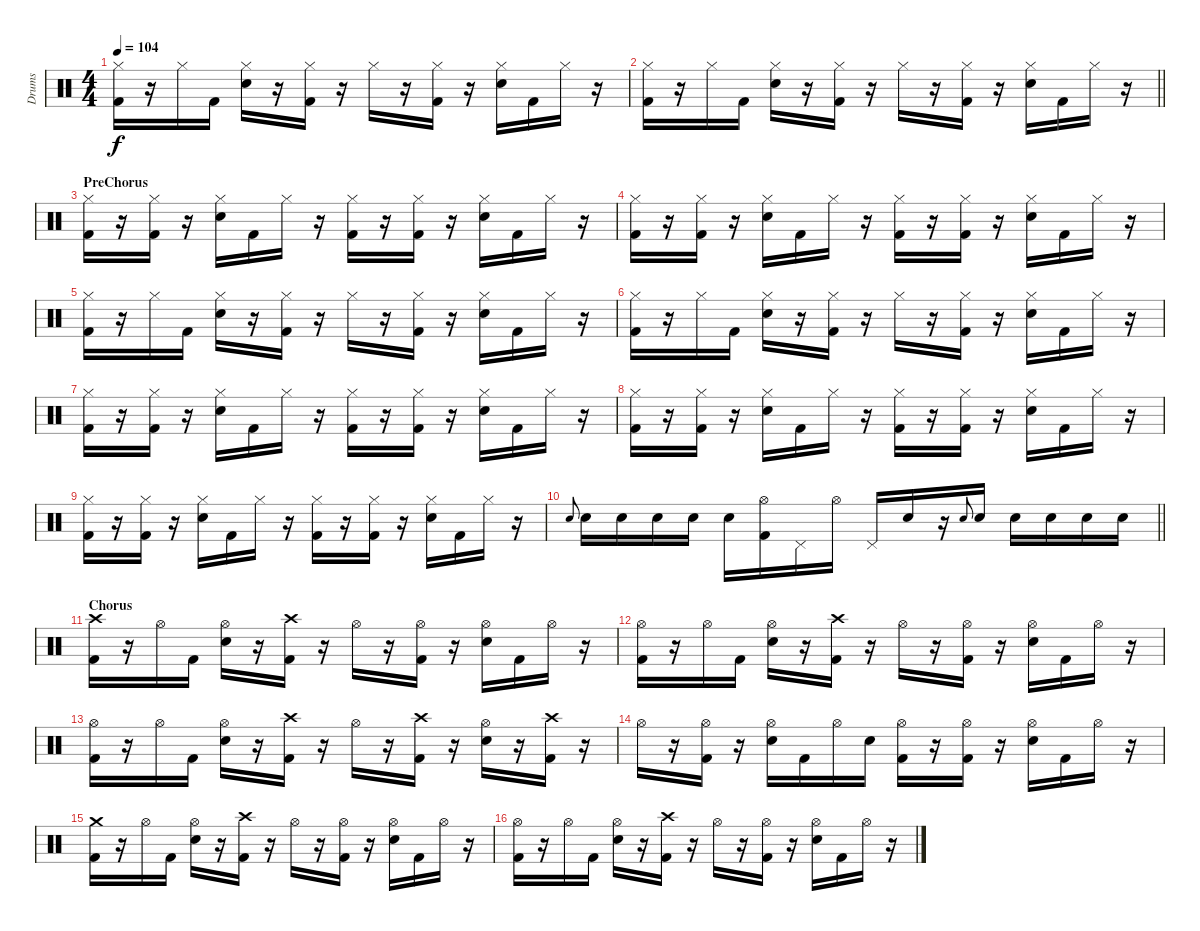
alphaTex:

\track ("Drums" "Drums") {instrument percussion}
\staff {score}
\articulation defaults
\ts (4 4)
\tempo 104
\clef neutral
\ks c
("Hi-Hat (closed)" "Kick (hit) 2").16{dy f} r.16 "Hi-Hat (closed)".16 "Kick (hit) 2".16 ("Hi-Hat (closed)" "Snare (hit) 2").16 r.16 ("Hi-Hat (closed)" "Kick (hit) 2").16 r.16 "Hi-Hat (closed)".16 r.16 ("Hi-Hat (closed)" "Kick (hit) 2").16 r.16 ("Hi-Hat (closed)" "Snare (hit) 2").16 "Kick (hit) 2".16 "Hi-Hat (closed)".16 r.16 |
\barLineRight lightlight
("Hi-Hat (closed)" "Kick (hit) 2").16 r.16 "Hi-Hat (closed)".16 "Kick (hit) 2".16 ("Hi-Hat (closed)" "Snare (hit) 2").16 r.16 ("Hi-Hat (closed)" "Kick (hit) 2").16 r.16 "Hi-Hat (closed)".16 r.16 ("Hi-Hat (closed)" "Kick (hit) 2").16 r.16 ("Hi-Hat (closed)" "Snare (hit) 2").16 "Kick (hit) 2".16 "Hi-Hat (closed)".16 r.16 |
\section ("" "PreChorus")
("Hi-Hat (closed)" "Kick (hit) 2").16 r.16 ("Hi-Hat (closed)" "Kick (hit) 2").16 r.16 ("Hi-Hat (closed)" "Snare (hit) 2").16 "Kick (hit) 2".16 "Hi-Hat (closed)".16 r.16 ("Hi-Hat (closed)" "Kick (hit) 2").16 r.16 ("Hi-Hat (closed)" "Kick (hit) 2").16 r.16 ("Hi-Hat (closed)" "Snare (hit) 2").16 "Kick (hit) 2".16 "Hi-Hat (closed)".16 r.16 |
("Hi-Hat (closed)" "Kick (hit) 2").16 r.16 ("Hi-Hat (closed)" "Kick (hit) 2").16 r.16 ("Hi-Hat (closed)" "Snare (hit) 2").16 "Kick (hit) 2".16 "Hi-Hat (closed)".16 r.16 ("Hi-Hat (closed)" "Kick (hit) 2").16 r.16 ("Hi-Hat (closed)" "Kick (hit) 2").16 r.16 ("Hi-Hat (closed)" "Snare (hit) 2").16 "Kick (hit) 2".16 "Hi-Hat (closed)".16 r.16 |
("Hi-Hat (closed)" "Kick (hit) 2").16 r.16 "Hi-Hat (closed)".16 "Kick (hit) 2".16 ("Hi-Hat (closed)" "Snare (hit) 2").16 r.16 ("Hi-Hat (closed)" "Kick (hit) 2").16 r.16 "Hi-Hat (closed)".16 r.16 ("Hi-Hat (closed)" "Kick (hit) 2").16 r.16 ("Hi-Hat (closed)" "Snare (hit) 2").16 "Kick (hit) 2".16 "Hi-Hat (closed)".16 r.16 |
("Hi-Hat (closed)" "Kick (hit) 2").16 r.16 "Hi-Hat (closed)".16 "Kick (hit) 2".16 ("Hi-Hat (closed)" "Snare (hit) 2").16 r.16 ("Hi-Hat (closed)" "Kick (hit) 2").16 r.16 "Hi-Hat (closed)".16 r.16 ("Hi-Hat (closed)" "Kick (hit) 2").16 r.16 ("Hi-Hat (closed)" "Snare (hit) 2").16 "Kick (hit) 2".16 "Hi-Hat (closed)".16 r.16 |
("Hi-Hat (closed)" "Kick (hit) 2").16 r.16 ("Hi-Hat (closed)" "Kick (hit) 2").16 r.16 ("Hi-Hat (closed)" "Snare (hit) 2").16 "Kick (hit) 2".16 "Hi-Hat (closed)".16 r.16 ("Hi-Hat (closed)" "Kick (hit) 2").16 r.16 ("Hi-Hat (closed)" "Kick (hit) 2").16 r.16 ("Hi-Hat (closed)" "Snare (hit) 2").16 "Kick (hit) 2".16 "Hi-Hat (closed)".16 r.16 |
("Hi-Hat (closed)" "Kick (hit) 2").16 r.16 ("Hi-Hat (closed)" "Kick (hit) 2").16 r.16 ("Hi-Hat (closed)" "Snare (hit) 2").16 "Kick (hit) 2".16 "Hi-Hat (closed)".16 r.16 ("Hi-Hat (closed)" "Kick (hit) 2").16 r.16 ("Hi-Hat (closed)" "Kick (hit) 2").16 r.16 ("Hi-Hat (closed)" "Snare (hit) 2").16 "Kick (hit) 2".16 "Hi-Hat (closed)".16 r.16 |
("Hi-Hat (closed)" "Kick (hit) 2").16 r.16 ("Hi-Hat (closed)" "Kick (hit) 2").16 r.16 ("Hi-Hat (closed)" "Snare (hit) 2").16 "Kick (hit) 2".16 "Hi-Hat (closed)".16 r.16 ("Hi-Hat (closed)" "Kick (hit) 2").16 r.16 ("Hi-Hat (closed)" "Kick (hit) 2").16 r.16 ("Hi-Hat (closed)" "Snare (hit) 2").16 "Kick (hit) 2".16 "Hi-Hat (closed)".16 r.16 |
\barLineRight lightlight "Snare (hit) 2".8{gr onbeat} "Snare (hit) 2".16 "Snare (hit) 2".16 "Snare (hit) 2".16 "Snare (hit) 2".16 "Snare (hit) 2".16
("Hi-Hat (open)" "Kick (hit) 2").16 "Pedal Hi-Hat (hit)".16 "Hi-Hat (open)".16 "Pedal Hi-Hat (hit)".16 "Snare (hit) 2".16 r.16 "Snare (hit) 2".8{gr onbeat} "Snare (hit) 2".16 "Snare (hit) 2".16 "Snare (hit) 2".16 "Snare (hit) 2".16 "Snare (hit) 2".16 |
\section ("" "Chorus")
("Crash high (hit)" "Kick (hit) 2").16 r.16 "Hi-Hat (open)".16 "Kick (hit) 2".16 ("Hi-Hat (open)" "Snare (hit) 2").16 r.16 ("Crash high (hit)" "Kick (hit) 2").16 r.16 "Hi-Hat (open)".16 r.16 ("Hi-Hat (open)" "Kick (hit) 2").16 r.16 ("Hi-Hat (open)" "Snare (hit) 2").16 "Kick (hit) 2".16 "Hi-Hat (open)".16 r.16 |
("Hi-Hat (open)" "Kick (hit) 2").16 r.16 "Hi-Hat (open)".16 "Kick (hit) 2".16 ("Hi-Hat (open)" "Snare (hit) 2").16 r.16 ("Crash high (hit)" "Kick (hit) 2").16 r.16 "Hi-Hat (open)".16 r.16 ("Hi-Hat (open)" "Kick (hit) 2").16 r.16 ("Hi-Hat (open)" "Snare (hit) 2").16 "Kick (hit) 2".16 "Hi-Hat (open)".16 r.16 |
("Hi-Hat (open)" "Kick (hit) 2").16 r.16 "Hi-Hat (open)".16 "Kick (hit) 2".16 ("Hi-Hat (open)" "Snare (hit) 2").16 r.16 ("Crash high (hit)" "Kick (hit) 2").16 r.16 "Hi-Hat (open)".16 r.16 ("Crash high (hit)" "Kick (hit) 2").16 r.16 ("Hi-Hat (open)" "Snare (hit) 2").16 r.16 ("Crash high (hit)" "Kick (hit) 2").16 r.16 |
"Hi-Hat (open)".16 r.16 ("Hi-Hat (open)" "Kick (hit) 2").16 r.16 ("Hi-Hat (open)" "Snare (hit) 2").16 "Kick (hit) 2".16 "Hi-Hat (open)".16 "Snare (hit) 2".16 ("Hi-Hat (open)" "Kick (hit) 2").16 r.16 ("Hi-Hat (open)" "Kick (hit) 2").16 r.16 ("Hi-Hat (open)" "Snare (hit) 2").16 "Kick (hit) 2".16 "Hi-Hat (open)".16 r.16 |
("Crash medium (hit)" "Kick (hit) 2").16 r.16 "Hi-Hat (open)".16 "Kick (hit) 2".16 ("Hi-Hat (open)" "Snare (hit) 2").16 r.16 ("Crash high (hit)" "Kick (hit) 2").16 r.16 "Hi-Hat (open)".16 r.16 ("Hi-Hat (open)" "Kick (hit) 2").16 r.16 ("Hi-Hat (open)" "Snare (hit) 2").16 "Kick (hit) 2".16 "Hi-Hat (open)".16 r.16 |
("Hi-Hat (open)" "Kick (hit) 2").16 r.16 "Hi-Hat (open)".16 "Kick (hit) 2".16 ("Hi-Hat (open)" "Snare (hit) 2").16 r.16 ("Crash high (hit)" "Kick (hit) 2").16 r.16 "Hi-Hat (open)".16 r.16 ("Hi-Hat (open)" "Kick (hit) 2").16 r.16 ("Hi-Hat (open)" "Snare (hit) 2").16 "Kick (hit) 2".16 "Hi-Hat (open)".16 r.16
